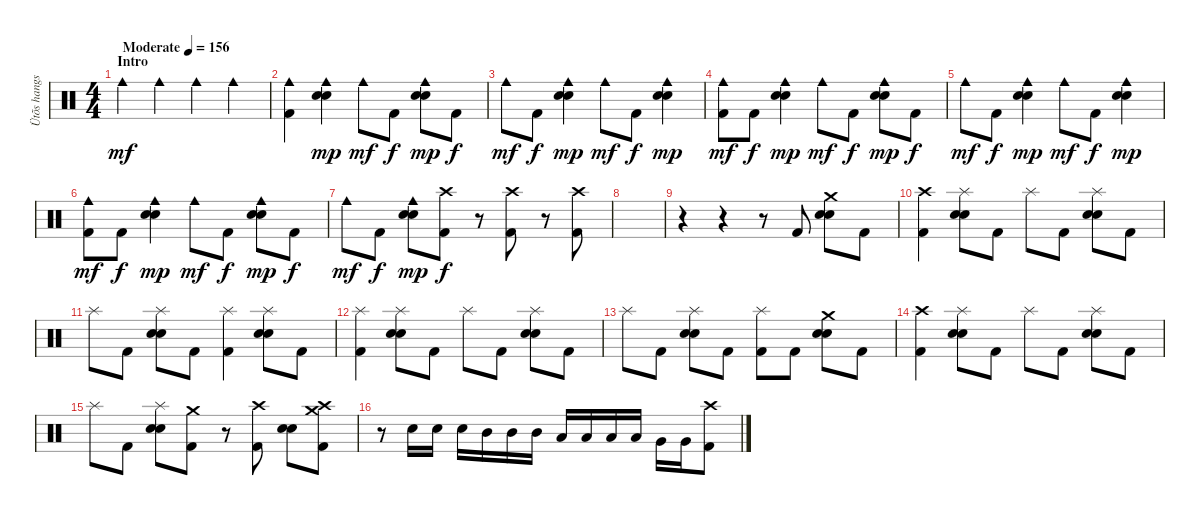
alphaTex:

\track ("Ütõs hangszer" "Ütõs hangs") {instrument percussion}
\staff {score}
\articulation defaults
\ts (4 4)
\section ("" "Intro")
\tempo (156 "Moderate")
\clef neutral
\ks c "Cowbell medium (hit)".4{dy mf} "Cowbell medium (hit)".4 "Cowbell medium (hit)".4 "Cowbell medium (hit)".4
|
("Cowbell medium (hit)" "Kick (hit) 2").4 ("Cowbell medium (hit)" "Snare (hit) 2" "Electric Snare (hit)").4{dy mp} "Cowbell medium (hit)".8{dy mf} "Kick (hit) 2".8{dy f} ("Cowbell medium (hit)" "Snare (hit) 2" "Electric Snare (hit)").8{dy mp} "Kick (hit) 2".8{dy f} |
"Cowbell medium (hit)".8{dy mf} "Kick (hit) 2".8{dy f} ("Cowbell medium (hit)" "Snare (hit) 2" "Electric Snare (hit)").4{dy mp} "Cowbell medium (hit)".8{dy mf} "Kick (hit) 2".8{dy f} ("Cowbell medium (hit)" "Snare (hit) 2" "Electric Snare (hit)").4{dy mp} |
("Cowbell medium (hit)" "Kick (hit) 2").8{dy mf} "Kick (hit) 2".8{dy f} ("Cowbell medium (hit)" "Snare (hit) 2" "Electric Snare (hit)").4{dy mp} "Cowbell medium (hit)".8{dy mf} "Kick (hit) 2".8{dy f} ("Cowbell medium (hit)" "Snare (hit) 2" "Electric Snare (hit)").8{dy mp} "Kick (hit) 2".8{dy f} |
"Cowbell medium (hit)".8{dy mf} "Kick (hit) 2".8{dy f} ("Cowbell medium (hit)" "Snare (hit) 2" "Electric Snare (hit)").4{dy mp} "Cowbell medium (hit)".8{dy mf} "Kick (hit) 2".8{dy f} ("Cowbell medium (hit)" "Snare (hit) 2" "Electric Snare (hit)").4{dy mp} |
("Cowbell medium (hit)" "Kick (hit) 2").8{dy mf} "Kick (hit) 2".8{dy f} ("Cowbell medium (hit)" "Snare (hit) 2" "Electric Snare (hit)").4{dy mp} "Cowbell medium (hit)".8{dy mf} "Kick (hit) 2".8{dy f} ("Cowbell medium (hit)" "Snare (hit) 2" "Electric Snare (hit)").8{dy mp} "Kick (hit) 2".8{dy f} |
"Cowbell medium (hit)".8{dy mf} "Kick (hit) 2".8{dy f} ("Cowbell medium (hit)" "Snare (hit) 2" "Electric Snare (hit)").8{dy mp} ("Crash high (hit)" "Kick (hit) 2").8{dy f} r.8{volume 2} ("Crash high (hit)" "Kick (hit) 2").8{volume 13} r.8{volume 3} ("Crash high (hit)" "Kick (hit) 2").8{volume 13} |
|
r.4 r.4 r.8 "Kick (hit) 2".8{volume 13} ("Crash medium (hit)" "Snare (hit) 2" "Electric Snare (hit)").8 "Kick (hit) 2".8 |
("Crash high (hit)" "Kick (hit) 2").4 ("Splash (hit)" "Snare (hit) 2" "Electric Snare (hit)").8 "Kick (hit) 2".8 "Splash (hit)".8 "Kick (hit) 2".8 ("Splash (hit)" "Snare (hit) 2" "Electric Snare (hit)").8 "Kick (hit) 2".8 |
"Splash (hit)".8 "Kick (hit) 2".8 ("Splash (hit)" "Snare (hit) 2" "Electric Snare (hit)").8 "Kick (hit) 2".8 ("Splash (hit)" "Kick (hit) 2").4 ("Splash (hit)" "Snare (hit) 2" "Electric Snare (hit)").8 "Kick (hit) 2".8 |
("Splash (hit)" "Kick (hit) 2").4 ("Splash (hit)" "Snare (hit) 2" "Electric Snare (hit)").8 "Kick (hit) 2".8 "Splash (hit)".8 "Kick (hit) 2".8 ("Splash (hit)" "Snare (hit) 2" "Electric Snare (hit)").8 "Kick (hit) 2".8 |
"Splash (hit)".8 "Kick (hit) 2".8 ("Splash (hit)" "Snare (hit) 2" "Electric Snare (hit)").8 "Kick (hit) 2".8 ("Splash (hit)" "Kick (hit) 2").8 "Kick (hit) 2".8 ("Crash medium (hit)" "Snare (hit) 2" "Electric Snare (hit)").8 "Kick (hit) 2".8 |
("Crash high (hit)" "Kick (hit) 2").4 ("Splash (hit)" "Snare (hit) 2" "Electric Snare (hit)").8 "Kick (hit) 2".8 "Splash (hit)".8 "Kick (hit) 2".8 ("Splash (hit)" "Snare (hit) 2" "Electric Snare (hit)").8 "Kick (hit) 2".8 |
"Splash (hit)".8 "Kick (hit) 2".8 ("Splash (hit)" "Snare (hit) 2" "Electric Snare (hit)").8 ("Crash medium (hit)" "Kick (hit) 2").8 r.8 ("Crash high (hit)" "Kick (hit) 2").8 ("Snare (hit) 2" "Electric Snare (hit)").8 ("Crash high (hit)" "Crash medium (hit)" "Kick (hit) 2").8 |
r.8 "Electric Snare (hit)".16 "Electric Snare (hit)".16 "Electric Snare (hit)".16 "Mid Tom (hit)".16 "Mid Tom (hit)".16 "Mid Tom (hit)".16 "Low Tom (hit)".16 "Low Tom (hit)".16 "Low Tom (hit)".16 "Low Tom (hit)".16 "Very Low Tom (hit)".16 "Very Low Tom (hit)".16 ("Crash high (hit)" "Kick (hit) 2").8
